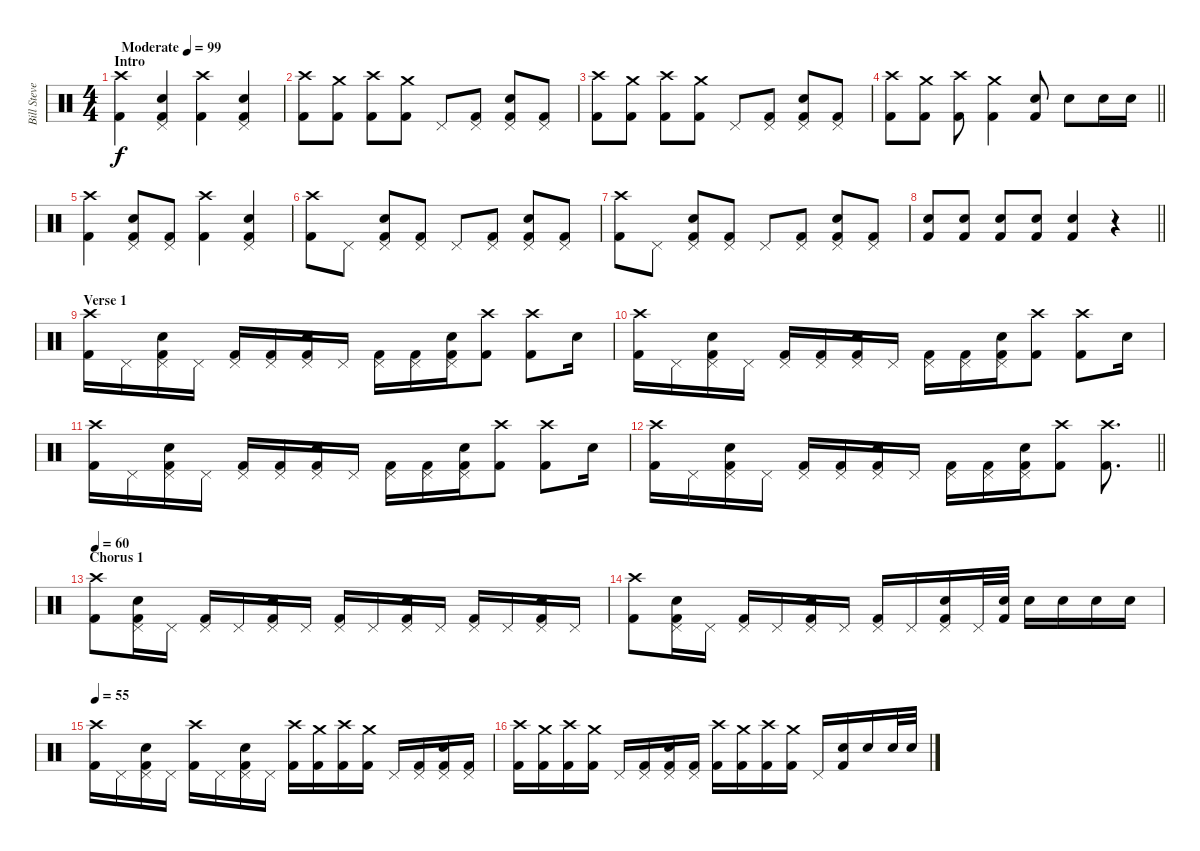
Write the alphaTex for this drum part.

\track ("Bill Stevenson (Drums)" "Bill Steve") {instrument percussion}
\staff {score}
\articulation defaults
\ts (4 4)
\section ("" "Intro")
\tempo (99 "Moderate")
\clef neutral
\ks c
("Kick (hit) 2" "Crash high (hit)").4{dy f} ("Kick (hit) 2" "Snare (hit) 2" "Pedal Hi-Hat (hit)").4 ("Kick (hit) 2" "Crash high (hit)").4 ("Kick (hit) 2" "Snare (hit) 2" "Pedal Hi-Hat (hit)").4 |
("Kick (hit) 2" "Crash high (hit)").8 ("Kick (hit) 2" "Crash medium (hit)").8 ("Kick (hit) 2" "Crash high (hit)").8 ("Kick (hit) 2" "Crash medium (hit)").8 "Pedal Hi-Hat (hit)".8 ("Kick (hit) 2" "Pedal Hi-Hat (hit)").8 ("Kick (hit) 2" "Snare (hit) 2" "Pedal Hi-Hat (hit)").8 ("Kick (hit) 2" "Pedal Hi-Hat (hit)").8 |
("Kick (hit) 2" "Crash high (hit)").8 ("Kick (hit) 2" "Crash medium (hit)").8 ("Kick (hit) 2" "Crash high (hit)").8 ("Kick (hit) 2" "Crash medium (hit)").8 "Pedal Hi-Hat (hit)".8 ("Kick (hit) 2" "Pedal Hi-Hat (hit)").8 ("Kick (hit) 2" "Snare (hit) 2" "Pedal Hi-Hat (hit)").8 ("Kick (hit) 2" "Pedal Hi-Hat (hit)").8 |
\barLineRight lightlight
("Kick (hit) 2" "Crash high (hit)").8 ("Kick (hit) 2" "Crash medium (hit)").8 ("Kick (hit) 2" "Crash high (hit)").8 ("Kick (hit) 2" "Crash medium (hit)").4 ("Kick (hit) 2" "Snare (hit) 2").8 "Snare (hit) 2".8 "Snare (hit) 2".16 "Snare (hit) 2".16 |
("Kick (hit) 2" "Crash high (hit)").4 ("Kick (hit) 2" "Snare (hit) 2" "Pedal Hi-Hat (hit)").8 ("Kick (hit) 2" "Pedal Hi-Hat (hit)").8 ("Kick (hit) 2" "Crash high (hit)").4 ("Kick (hit) 2" "Snare (hit) 2" "Pedal Hi-Hat (hit)").4 |
("Kick (hit) 2" "Crash high (hit)").8 "Pedal Hi-Hat (hit)".8 ("Kick (hit) 2" "Snare (hit) 2" "Pedal Hi-Hat (hit)").8 ("Kick (hit) 2" "Pedal Hi-Hat (hit)").8 "Pedal Hi-Hat (hit)".8 ("Kick (hit) 2" "Pedal Hi-Hat (hit)").8 ("Kick (hit) 2" "Snare (hit) 2" "Pedal Hi-Hat (hit)").8 ("Kick (hit) 2" "Pedal Hi-Hat (hit)").8 |
("Kick (hit) 2" "Crash high (hit)").8 "Pedal Hi-Hat (hit)".8 ("Kick (hit) 2" "Snare (hit) 2" "Pedal Hi-Hat (hit)").8 ("Kick (hit) 2" "Pedal Hi-Hat (hit)").8 "Pedal Hi-Hat (hit)".8 ("Kick (hit) 2" "Pedal Hi-Hat (hit)").8 ("Kick (hit) 2" "Snare (hit) 2" "Pedal Hi-Hat (hit)").8 ("Kick (hit) 2" "Pedal Hi-Hat (hit)").8 |
\barLineRight lightlight
("Kick (hit) 2" "Snare (hit) 2").8 ("Kick (hit) 2" "Snare (hit) 2").8 ("Kick (hit) 2" "Snare (hit) 2").8 ("Kick (hit) 2" "Snare (hit) 2").8 ("Kick (hit) 2" "Snare (hit) 2").4 r.4 |
\section ("" "Verse 1")
("Kick (hit) 2" "Crash high (hit)").16 "Pedal Hi-Hat (hit)".16 ("Kick (hit) 2" "Snare (hit) 2" "Pedal Hi-Hat (hit)").16 "Pedal Hi-Hat (hit)".16 ("Kick (hit) 2" "Pedal Hi-Hat (hit)").16 ("Kick (hit) 2" "Pedal Hi-Hat (hit)").16 ("Kick (hit) 2" "Snare (hit) 2" "Pedal Hi-Hat (hit)").16 "Pedal Hi-Hat (hit)".16 ("Kick (hit) 2" "Pedal Hi-Hat (hit)").16 ("Kick (hit) 2" "Pedal Hi-Hat (hit)").16 ("Kick (hit) 2" "Snare (hit) 2" "Pedal Hi-Hat (hit)").16 ("Kick (hit) 2" "Crash high (hit)").8 ("Kick (hit) 2" "Crash high (hit)").8 "Snare (hit) 2".16 |
("Kick (hit) 2" "Crash high (hit)").16 "Pedal Hi-Hat (hit)".16 ("Kick (hit) 2" "Snare (hit) 2" "Pedal Hi-Hat (hit)").16 "Pedal Hi-Hat (hit)".16 ("Kick (hit) 2" "Pedal Hi-Hat (hit)").16 ("Kick (hit) 2" "Pedal Hi-Hat (hit)").16 ("Kick (hit) 2" "Snare (hit) 2" "Pedal Hi-Hat (hit)").16 "Pedal Hi-Hat (hit)".16 ("Kick (hit) 2" "Pedal Hi-Hat (hit)").16 ("Kick (hit) 2" "Pedal Hi-Hat (hit)").16 ("Kick (hit) 2" "Snare (hit) 2" "Pedal Hi-Hat (hit)").16 ("Kick (hit) 2" "Crash high (hit)").8 ("Kick (hit) 2" "Crash high (hit)").8 "Snare (hit) 2".16 |
("Kick (hit) 2" "Crash high (hit)").16 "Pedal Hi-Hat (hit)".16 ("Kick (hit) 2" "Snare (hit) 2" "Pedal Hi-Hat (hit)").16 "Pedal Hi-Hat (hit)".16 ("Kick (hit) 2" "Pedal Hi-Hat (hit)").16 ("Kick (hit) 2" "Pedal Hi-Hat (hit)").16 ("Kick (hit) 2" "Snare (hit) 2" "Pedal Hi-Hat (hit)").16 "Pedal Hi-Hat (hit)".16 ("Kick (hit) 2" "Pedal Hi-Hat (hit)").16 ("Kick (hit) 2" "Pedal Hi-Hat (hit)").16 ("Kick (hit) 2" "Snare (hit) 2" "Pedal Hi-Hat (hit)").16 ("Kick (hit) 2" "Crash high (hit)").8 ("Kick (hit) 2" "Crash high (hit)").8 "Snare (hit) 2".16 |
\barLineRight lightlight
("Kick (hit) 2" "Crash high (hit)").16 "Pedal Hi-Hat (hit)".16 ("Kick (hit) 2" "Snare (hit) 2" "Pedal Hi-Hat (hit)").16 "Pedal Hi-Hat (hit)".16 ("Kick (hit) 2" "Pedal Hi-Hat (hit)").16 ("Kick (hit) 2" "Pedal Hi-Hat (hit)").16 ("Kick (hit) 2" "Snare (hit) 2" "Pedal Hi-Hat (hit)").16 "Pedal Hi-Hat (hit)".16 ("Kick (hit) 2" "Pedal Hi-Hat (hit)").16 ("Kick (hit) 2" "Pedal Hi-Hat (hit)").16 ("Kick (hit) 2" "Snare (hit) 2" "Pedal Hi-Hat (hit)").16 ("Kick (hit) 2" "Crash high (hit)").8 ("Kick (hit) 2" "Crash high (hit)").8{d} |
\section ("" "Chorus 1")
\tempo 60
("Kick (hit) 2" "Crash high (hit)").8 ("Kick (hit) 2" "Snare (hit) 2" "Pedal Hi-Hat (hit)").16 "Pedal Hi-Hat (hit)".16 ("Kick (hit) 2" "Pedal Hi-Hat (hit)").16 "Pedal Hi-Hat (hit)".16 ("Kick (hit) 2" "Snare (hit) 2" "Pedal Hi-Hat (hit)").16 "Pedal Hi-Hat (hit)".16 ("Kick (hit) 2" "Pedal Hi-Hat (hit)").16 "Pedal Hi-Hat (hit)".16 ("Kick (hit) 2" "Snare (hit) 2" "Pedal Hi-Hat (hit)").16 "Pedal Hi-Hat (hit)".16 ("Kick (hit) 2" "Pedal Hi-Hat (hit)").16 "Pedal Hi-Hat (hit)".16 ("Kick (hit) 2" "Snare (hit) 2" "Pedal Hi-Hat (hit)").16 "Pedal Hi-Hat (hit)".16 |
("Kick (hit) 2" "Crash high (hit)").8 ("Kick (hit) 2" "Snare (hit) 2" "Pedal Hi-Hat (hit)").16 "Pedal Hi-Hat (hit)".16 ("Kick (hit) 2" "Pedal Hi-Hat (hit)").16 "Pedal Hi-Hat (hit)".16 ("Kick (hit) 2" "Snare (hit) 2" "Pedal Hi-Hat (hit)").16 "Pedal Hi-Hat (hit)".16 ("Kick (hit) 2" "Pedal Hi-Hat (hit)").16 "Pedal Hi-Hat (hit)".16 ("Kick (hit) 2" "Snare (hit) 2" "Pedal Hi-Hat (hit)").16 "Pedal Hi-Hat (hit)".32 ("Kick (hit) 2" "Snare (hit) 2").32 "Snare (hit) 2".16 "Snare (hit) 2".16 "Snare (hit) 2".16 "Snare (hit) 2".16 |
\tempo 55
("Kick (hit) 2" "Crash high (hit)").16 "Pedal Hi-Hat (hit)".16 ("Kick (hit) 2" "Snare (hit) 2" "Pedal Hi-Hat (hit)").16 "Pedal Hi-Hat (hit)".16 ("Kick (hit) 2" "Crash high (hit)").16 "Pedal Hi-Hat (hit)".16 ("Kick (hit) 2" "Snare (hit) 2" "Pedal Hi-Hat (hit)").16 "Pedal Hi-Hat (hit)".16 ("Kick (hit) 2" "Crash high (hit)").16 ("Kick (hit) 2" "Crash medium (hit)").16 ("Kick (hit) 2" "Crash high (hit)").16 ("Kick (hit) 2" "Crash medium (hit)").16 "Pedal Hi-Hat (hit)".16 ("Kick (hit) 2" "Pedal Hi-Hat (hit)").16 ("Kick (hit) 2" "Snare (hit) 2" "Pedal Hi-Hat (hit)").16 ("Kick (hit) 2" "Pedal Hi-Hat (hit)").16 |
("Kick (hit) 2" "Crash high (hit)").16 ("Kick (hit) 2" "Crash medium (hit)").16 ("Kick (hit) 2" "Crash high (hit)").16 ("Kick (hit) 2" "Crash medium (hit)").16 "Pedal Hi-Hat (hit)".16 ("Kick (hit) 2" "Pedal Hi-Hat (hit)").16 ("Kick (hit) 2" "Snare (hit) 2" "Pedal Hi-Hat (hit)").16 ("Kick (hit) 2" "Pedal Hi-Hat (hit)").16 ("Kick (hit) 2" "Crash high (hit)").16 ("Kick (hit) 2" "Crash medium (hit)").16 ("Kick (hit) 2" "Crash high (hit)").16 ("Kick (hit) 2" "Crash medium (hit)").16 "Pedal Hi-Hat (hit)".16 ("Kick (hit) 2" "Snare (hit) 2").16 "Snare (hit) 2".16 "Snare (hit) 2".32 "Snare (hit) 2".32
